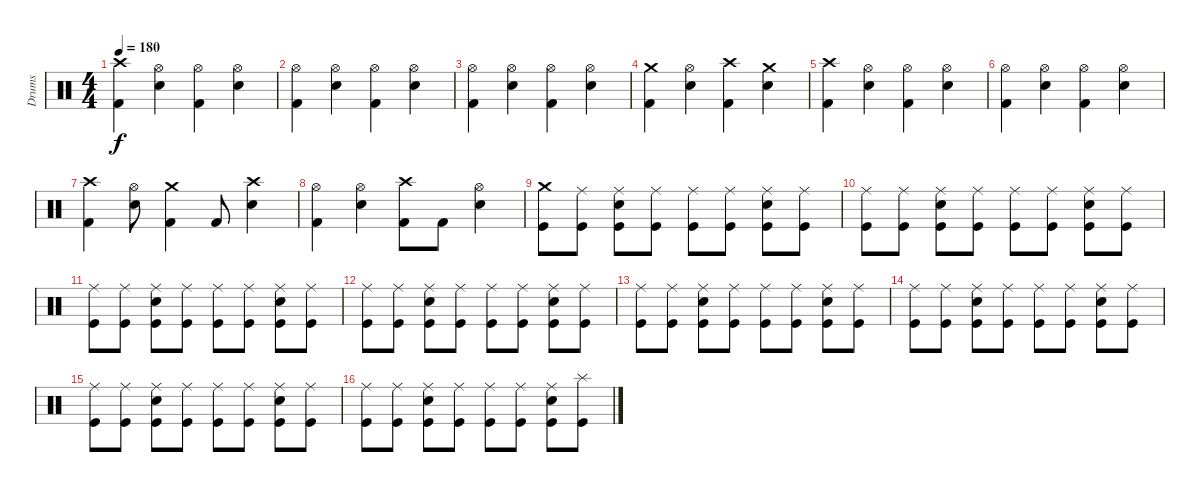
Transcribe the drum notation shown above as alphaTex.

\track ("Drums" "Drums") {instrument percussion}
\staff {score}
\articulation defaults
\ts (4 4)
\tempo 180
\clef neutral
\ks c
("Crash high (hit)" "Kick (hit) 2").4{dy f} ("Hi-Hat (open)" "Snare (hit) 2").4 ("Hi-Hat (open)" "Kick (hit) 2").4 ("Hi-Hat (open)" "Snare (hit) 2").4 |
("Hi-Hat (open)" "Kick (hit) 2").4 ("Hi-Hat (open)" "Snare (hit) 2").4 ("Hi-Hat (open)" "Kick (hit) 2").4 ("Hi-Hat (open)" "Snare (hit) 2").4 |
("Hi-Hat (open)" "Kick (hit) 2").4 ("Hi-Hat (open)" "Snare (hit) 2").4 ("Hi-Hat (open)" "Kick (hit) 2").4 ("Hi-Hat (open)" "Snare (hit) 2").4 |
("Crash medium (hit)" "Kick (hit) 2").4 ("Hi-Hat (open)" "Snare (hit) 2").4 ("Crash high (hit)" "Kick (hit) 2").4 ("Crash medium (hit)" "Snare (hit) 2").4 |
("Crash high (hit)" "Kick (hit) 2").4 ("Hi-Hat (open)" "Snare (hit) 2").4 ("Hi-Hat (open)" "Kick (hit) 2").4 ("Hi-Hat (open)" "Snare (hit) 2").4 |
("Hi-Hat (open)" "Kick (hit) 2").4 ("Hi-Hat (open)" "Snare (hit) 2").4 ("Hi-Hat (open)" "Kick (hit) 2").4 ("Hi-Hat (open)" "Snare (hit) 2").4 |
("Crash high (hit)" "Kick (hit) 2").4 ("Hi-Hat (open)" "Snare (hit) 2").8 ("Crash medium (hit)" "Kick (hit) 2").4 "Kick (hit) 2".8 ("Crash high (hit)" "Snare (hit) 2").4 |
("Hi-Hat (open)" "Kick (hit) 2").4 ("Hi-Hat (open)" "Snare (hit) 2").4 ("Crash high (hit)" "Kick (hit) 2").8 "Kick (hit) 2".8 ("Hi-Hat (open)" "Snare (hit) 2").4 |
("Crash medium (hit)" "Kick (hit)").8 ("Ride (middle)" "Kick (hit)").8 ("Ride (middle)" "Snare (hit) 2" "Kick (hit)").8 ("Ride (middle)" "Kick (hit)").8 ("Ride (middle)" "Kick (hit)").8 ("Ride (middle)" "Kick (hit)").8 ("Ride (middle)" "Snare (hit) 2" "Kick (hit)").8 ("Ride (middle)" "Kick (hit)").8 |
("Ride (middle)" "Kick (hit)").8 ("Ride (middle)" "Kick (hit)").8 ("Ride (middle)" "Snare (hit) 2" "Kick (hit)").8 ("Ride (middle)" "Kick (hit)").8 ("Ride (middle)" "Kick (hit)").8 ("Ride (middle)" "Kick (hit)").8 ("Ride (middle)" "Snare (hit) 2" "Kick (hit)").8 ("Ride (middle)" "Kick (hit)").8 |
("Ride (middle)" "Kick (hit)").8 ("Ride (middle)" "Kick (hit)").8 ("Ride (middle)" "Snare (hit) 2" "Kick (hit)").8 ("Ride (middle)" "Kick (hit)").8 ("Ride (middle)" "Kick (hit)").8 ("Ride (middle)" "Kick (hit)").8 ("Ride (middle)" "Snare (hit) 2" "Kick (hit)").8 ("Ride (middle)" "Kick (hit)").8 |
("Ride (middle)" "Kick (hit)").8 ("Ride (middle)" "Kick (hit)").8 ("Ride (middle)" "Snare (hit) 2" "Kick (hit)").8 ("Ride (middle)" "Kick (hit)").8 ("Ride (middle)" "Kick (hit)").8 ("Ride (middle)" "Kick (hit)").8 ("Ride (middle)" "Snare (hit) 2" "Kick (hit)").8 ("Ride (middle)" "Kick (hit)").8 |
("Ride (middle)" "Kick (hit)").8 ("Ride (middle)" "Kick (hit)").8 ("Ride (middle)" "Snare (hit) 2" "Kick (hit)").8 ("Ride (middle)" "Kick (hit)").8 ("Ride (middle)" "Kick (hit)").8 ("Ride (middle)" "Kick (hit)").8 ("Ride (middle)" "Snare (hit) 2" "Kick (hit)").8 ("Ride (middle)" "Kick (hit)").8 |
("Ride (middle)" "Kick (hit)").8 ("Ride (middle)" "Kick (hit)").8 ("Ride (middle)" "Snare (hit) 2" "Kick (hit)").8 ("Ride (middle)" "Kick (hit)").8 ("Ride (middle)" "Kick (hit)").8 ("Ride (middle)" "Kick (hit)").8 ("Ride (middle)" "Snare (hit) 2" "Kick (hit)").8 ("Ride (middle)" "Kick (hit)").8 |
("Ride (middle)" "Kick (hit)").8 ("Ride (middle)" "Kick (hit)").8 ("Ride (middle)" "Snare (hit) 2" "Kick (hit)").8 ("Ride (middle)" "Kick (hit)").8 ("Ride (middle)" "Kick (hit)").8 ("Ride (middle)" "Kick (hit)").8 ("Ride (middle)" "Snare (hit) 2" "Kick (hit)").8 ("Ride (middle)" "Kick (hit)").8 |
("Ride (middle)" "Kick (hit)").8 ("Ride (middle)" "Kick (hit)").8 ("Ride (middle)" "Snare (hit) 2" "Kick (hit)").8 ("Ride (middle)" "Kick (hit)").8 ("Ride (middle)" "Kick (hit)").8 ("Ride (middle)" "Kick (hit)").8 ("Ride (middle)" "Snare (hit) 2" "Kick (hit)").8 ("Splash (hit)" "Kick (hit)").8
